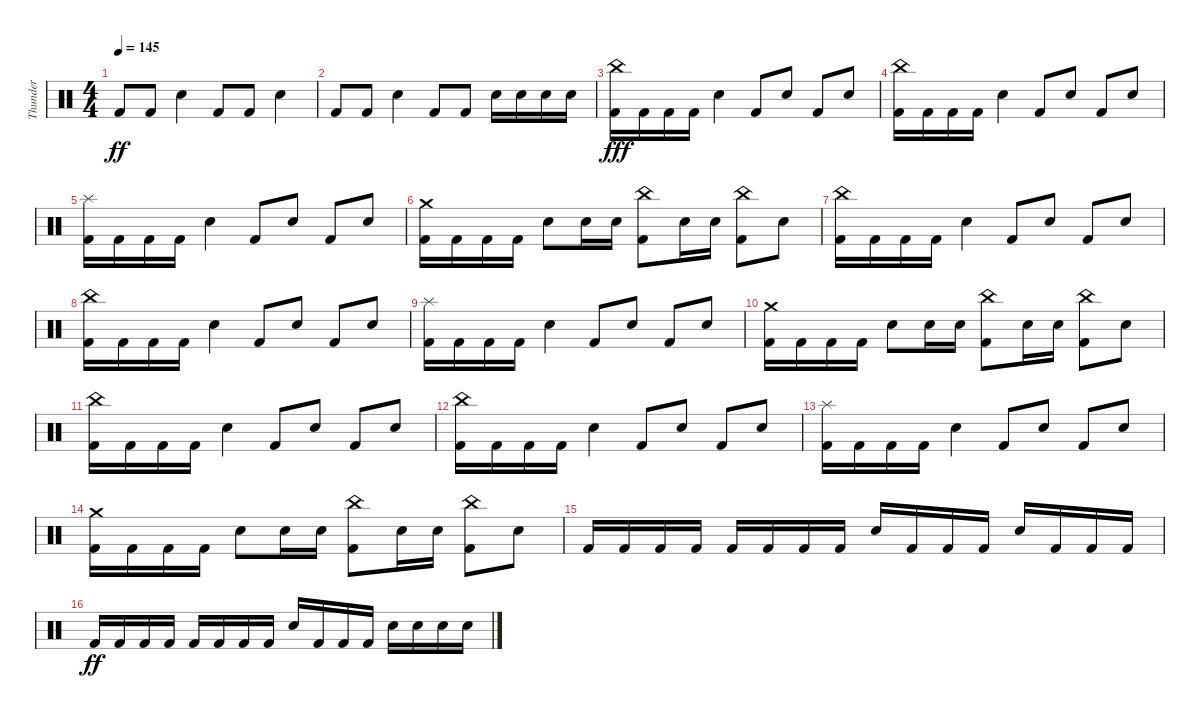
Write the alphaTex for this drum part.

\track ("Thunder" "Thunder") {instrument percussion}
\staff {score}
\articulation defaults
\ts (4 4)
\tempo 145
\clef neutral
\ks c "Kick (hit) 2".8{dy ff} "Kick (hit) 2".8 "Electric Snare (hit)".4 "Kick (hit) 2".8 "Kick (hit) 2".8 "Electric Snare (hit)".4
|
"Kick (hit) 2".8 "Kick (hit) 2".8 "Electric Snare (hit)".4 "Kick (hit) 2".8 "Kick (hit) 2".8 "Electric Snare (hit)".16 "Electric Snare (hit)".16 "Electric Snare (hit)".16 "Electric Snare (hit)".16 |
("China (hit)" "Kick (hit) 2").16{dy fff} "Kick (hit) 2".16 "Kick (hit) 2".16 "Kick (hit) 2".16 "Electric Snare (hit)".4 "Kick (hit) 2".8 "Electric Snare (hit)".8 "Kick (hit) 2".8 "Electric Snare (hit)".8 |
("China (hit)" "Kick (hit) 2").16 "Kick (hit) 2".16 "Kick (hit) 2".16 "Kick (hit) 2".16 "Electric Snare (hit)".4 "Kick (hit) 2".8 "Electric Snare (hit)".8 "Kick (hit) 2".8 "Electric Snare (hit)".8 |
("Splash (hit)" "Kick (hit) 2").16 "Kick (hit) 2".16 "Kick (hit) 2".16 "Kick (hit) 2".16 "Electric Snare (hit)".4 "Kick (hit) 2".8 "Electric Snare (hit)".8 "Kick (hit) 2".8 "Electric Snare (hit)".8 |
("Crash medium (hit)" "Kick (hit) 2").16 "Kick (hit) 2".16 "Kick (hit) 2".16 "Kick (hit) 2".16 "Electric Snare (hit)".8 "Electric Snare (hit)".16 "Electric Snare (hit)".16 ("China (hit)" "Kick (hit) 2").8 "Electric Snare (hit)".16 "Electric Snare (hit)".16 ("China (hit)" "Kick (hit) 2").8 "Electric Snare (hit)".8 |
("China (hit)" "Kick (hit) 2").16 "Kick (hit) 2".16 "Kick (hit) 2".16 "Kick (hit) 2".16 "Electric Snare (hit)".4 "Kick (hit) 2".8 "Electric Snare (hit)".8 "Kick (hit) 2".8 "Electric Snare (hit)".8 |
("China (hit)" "Kick (hit) 2").16 "Kick (hit) 2".16 "Kick (hit) 2".16 "Kick (hit) 2".16 "Electric Snare (hit)".4 "Kick (hit) 2".8 "Electric Snare (hit)".8 "Kick (hit) 2".8 "Electric Snare (hit)".8 |
("Splash (hit)" "Kick (hit) 2").16 "Kick (hit) 2".16 "Kick (hit) 2".16 "Kick (hit) 2".16 "Electric Snare (hit)".4 "Kick (hit) 2".8 "Electric Snare (hit)".8 "Kick (hit) 2".8 "Electric Snare (hit)".8 |
("Crash medium (hit)" "Kick (hit) 2").16 "Kick (hit) 2".16 "Kick (hit) 2".16 "Kick (hit) 2".16 "Electric Snare (hit)".8 "Electric Snare (hit)".16 "Electric Snare (hit)".16 ("China (hit)" "Kick (hit) 2").8 "Electric Snare (hit)".16 "Electric Snare (hit)".16 ("China (hit)" "Kick (hit) 2").8 "Electric Snare (hit)".8 |
("China (hit)" "Kick (hit) 2").16 "Kick (hit) 2".16 "Kick (hit) 2".16 "Kick (hit) 2".16 "Electric Snare (hit)".4 "Kick (hit) 2".8 "Electric Snare (hit)".8 "Kick (hit) 2".8 "Electric Snare (hit)".8 |
("China (hit)" "Kick (hit) 2").16 "Kick (hit) 2".16 "Kick (hit) 2".16 "Kick (hit) 2".16 "Electric Snare (hit)".4 "Kick (hit) 2".8 "Electric Snare (hit)".8 "Kick (hit) 2".8 "Electric Snare (hit)".8 |
("Splash (hit)" "Kick (hit) 2").16 "Kick (hit) 2".16 "Kick (hit) 2".16 "Kick (hit) 2".16 "Electric Snare (hit)".4 "Kick (hit) 2".8 "Electric Snare (hit)".8 "Kick (hit) 2".8 "Electric Snare (hit)".8 |
("Crash medium (hit)" "Kick (hit) 2").16 "Kick (hit) 2".16 "Kick (hit) 2".16 "Kick (hit) 2".16 "Electric Snare (hit)".8 "Electric Snare (hit)".16 "Electric Snare (hit)".16 ("China (hit)" "Kick (hit) 2").8 "Electric Snare (hit)".16 "Electric Snare (hit)".16 ("China (hit)" "Kick (hit) 2").8 "Electric Snare (hit)".8 |
"Kick (hit) 2".16 "Kick (hit) 2".16 "Kick (hit) 2".16 "Kick (hit) 2".16 "Kick (hit) 2".16 "Kick (hit) 2".16 "Kick (hit) 2".16 "Kick (hit) 2".16 "Electric Snare (hit)".16 "Kick (hit) 2".16 "Kick (hit) 2".16 "Kick (hit) 2".16 "Electric Snare (hit)".16 "Kick (hit) 2".16 "Kick (hit) 2".16 "Kick (hit) 2".16 |
"Kick (hit) 2".16{dy ff} "Kick (hit) 2".16 "Kick (hit) 2".16 "Kick (hit) 2".16 "Kick (hit) 2".16 "Kick (hit) 2".16 "Kick (hit) 2".16 "Kick (hit) 2".16 "Electric Snare (hit)".16 "Kick (hit) 2".16 "Kick (hit) 2".16 "Kick (hit) 2".16 "Electric Snare (hit)".16 "Electric Snare (hit)".16 "Electric Snare (hit)".16 "Electric Snare (hit)".16
